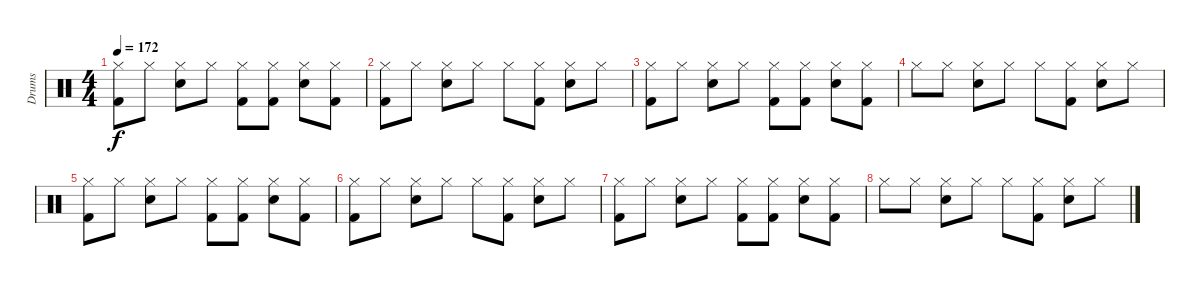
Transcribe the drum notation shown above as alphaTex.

\track ("Drums" "Drums") {instrument percussion}
\staff {score}
\articulation defaults
\ts (4 4)
\tempo 172
\clef neutral
\ks c
("Hi-Hat (closed)" "Kick (hit) 2").8{dy f volume 2} "Hi-Hat (closed)".8 ("Hi-Hat (closed)" "Electric Snare (hit)").8 "Hi-Hat (closed)".8 ("Hi-Hat (closed)" "Kick (hit) 2").8 ("Hi-Hat (closed)" "Kick (hit) 2").8 ("Hi-Hat (closed)" "Electric Snare (hit)").8 ("Hi-Hat (closed)" "Kick (hit) 2").8 |
("Hi-Hat (closed)" "Kick (hit) 2").8 "Hi-Hat (closed)".8 ("Hi-Hat (closed)" "Electric Snare (hit)").8 "Hi-Hat (closed)".8 "Hi-Hat (closed)".8 ("Hi-Hat (closed)" "Kick (hit) 2").8 ("Hi-Hat (closed)" "Electric Snare (hit)").8 "Hi-Hat (closed)".8 |
("Hi-Hat (closed)" "Kick (hit) 2").8 "Hi-Hat (closed)".8 ("Hi-Hat (closed)" "Electric Snare (hit)").8 "Hi-Hat (closed)".8 ("Hi-Hat (closed)" "Kick (hit) 2").8 ("Hi-Hat (closed)" "Kick (hit) 2").8 ("Hi-Hat (closed)" "Electric Snare (hit)").8 ("Hi-Hat (closed)" "Kick (hit) 2").8 |
"Hi-Hat (closed)".8 "Hi-Hat (closed)".8 ("Hi-Hat (closed)" "Electric Snare (hit)").8 "Hi-Hat (closed)".8 "Hi-Hat (closed)".8 ("Hi-Hat (closed)" "Kick (hit) 2").8 ("Hi-Hat (closed)" "Electric Snare (hit)").8 "Hi-Hat (closed)".8 |
("Hi-Hat (closed)" "Kick (hit) 2").8{volume 0} "Hi-Hat (closed)".8 ("Hi-Hat (closed)" "Electric Snare (hit)").8 "Hi-Hat (closed)".8 ("Hi-Hat (closed)" "Kick (hit) 2").8 ("Hi-Hat (closed)" "Kick (hit) 2").8 ("Hi-Hat (closed)" "Electric Snare (hit)").8 ("Hi-Hat (closed)" "Kick (hit) 2").8 |
("Hi-Hat (closed)" "Kick (hit) 2").8 "Hi-Hat (closed)".8 ("Hi-Hat (closed)" "Electric Snare (hit)").8 "Hi-Hat (closed)".8 "Hi-Hat (closed)".8 ("Hi-Hat (closed)" "Kick (hit) 2").8 ("Hi-Hat (closed)" "Electric Snare (hit)").8 "Hi-Hat (closed)".8 |
("Hi-Hat (closed)" "Kick (hit) 2").8 "Hi-Hat (closed)".8 ("Hi-Hat (closed)" "Electric Snare (hit)").8 "Hi-Hat (closed)".8 ("Hi-Hat (closed)" "Kick (hit) 2").8 ("Hi-Hat (closed)" "Kick (hit) 2").8 ("Hi-Hat (closed)" "Electric Snare (hit)").8 ("Hi-Hat (closed)" "Kick (hit) 2").8 |
"Hi-Hat (closed)".8 "Hi-Hat (closed)".8 ("Hi-Hat (closed)" "Electric Snare (hit)").8 "Hi-Hat (closed)".8 "Hi-Hat (closed)".8 ("Hi-Hat (closed)" "Kick (hit) 2").8 ("Hi-Hat (closed)" "Electric Snare (hit)").8 "Hi-Hat (closed)".8
